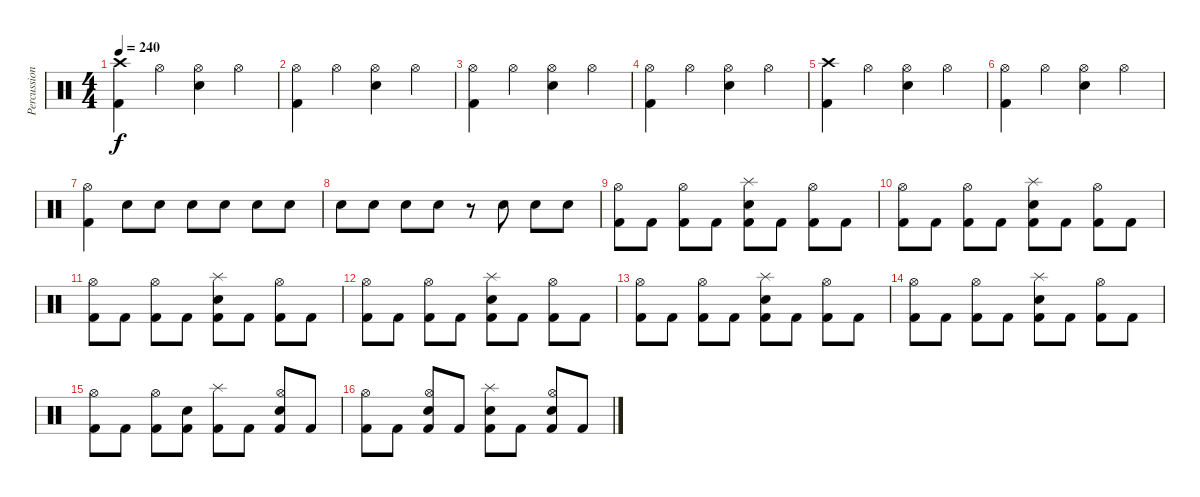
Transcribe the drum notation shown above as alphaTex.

\track ("Percussion" "Percussion") {instrument percussion}
\staff {score}
\articulation defaults
\ts (4 4)
\tempo 240
\clef neutral
\ks c
("Kick (hit) 2" "Crash high (hit)").4{dy f} "Hi-Hat (open)".4 ("Electric Snare (hit)" "Hi-Hat (open)").4 "Hi-Hat (open)".4 |
("Kick (hit) 2" "Hi-Hat (open)").4 "Hi-Hat (open)".4 ("Electric Snare (hit)" "Hi-Hat (open)").4 "Hi-Hat (open)".4 |
("Kick (hit) 2" "Hi-Hat (open)").4 "Hi-Hat (open)".4 ("Electric Snare (hit)" "Hi-Hat (open)").4 "Hi-Hat (open)".4 |
("Kick (hit) 2" "Hi-Hat (open)").4 "Hi-Hat (open)".4 ("Electric Snare (hit)" "Hi-Hat (open)").4 "Hi-Hat (open)".4 |
("Kick (hit) 2" "Crash high (hit)").4 "Hi-Hat (open)".4 ("Electric Snare (hit)" "Hi-Hat (open)").4 "Hi-Hat (open)".4 |
("Kick (hit) 2" "Hi-Hat (open)").4 "Hi-Hat (open)".4 ("Electric Snare (hit)" "Hi-Hat (open)").4 "Hi-Hat (open)".4 |
("Kick (hit) 2" "Hi-Hat (open)").4 "Electric Snare (hit)".8 "Electric Snare (hit)".8 "Electric Snare (hit)".8 "Electric Snare (hit)".8 "Electric Snare (hit)".8 "Electric Snare (hit)".8 |
"Electric Snare (hit)".8 "Electric Snare (hit)".8 "Electric Snare (hit)".8 "Electric Snare (hit)".8 r.8 "Electric Snare (hit)".8 "Electric Snare (hit)".8 "Electric Snare (hit)".8 |
("Kick (hit) 2" "Hi-Hat (open)").8 "Kick (hit) 2".8 ("Kick (hit) 2" "Hi-Hat (open)").8 "Kick (hit) 2".8 ("Kick (hit) 2" "Electric Snare (hit)" "Splash (hit)").8 "Kick (hit) 2".8 ("Kick (hit) 2" "Hi-Hat (open)").8 "Kick (hit) 2".8 |
("Kick (hit) 2" "Hi-Hat (open)").8 "Kick (hit) 2".8 ("Kick (hit) 2" "Hi-Hat (open)").8 "Kick (hit) 2".8 ("Kick (hit) 2" "Electric Snare (hit)" "Splash (hit)").8 "Kick (hit) 2".8 ("Kick (hit) 2" "Hi-Hat (open)").8 "Kick (hit) 2".8 |
("Kick (hit) 2" "Hi-Hat (open)").8 "Kick (hit) 2".8 ("Kick (hit) 2" "Hi-Hat (open)").8 "Kick (hit) 2".8 ("Kick (hit) 2" "Electric Snare (hit)" "Splash (hit)").8 "Kick (hit) 2".8 ("Kick (hit) 2" "Hi-Hat (open)").8 "Kick (hit) 2".8 |
("Kick (hit) 2" "Hi-Hat (open)").8 "Kick (hit) 2".8 ("Kick (hit) 2" "Hi-Hat (open)").8 "Kick (hit) 2".8 ("Kick (hit) 2" "Electric Snare (hit)" "Splash (hit)").8 "Kick (hit) 2".8 ("Kick (hit) 2" "Hi-Hat (open)").8 "Kick (hit) 2".8 |
("Kick (hit) 2" "Hi-Hat (open)").8 "Kick (hit) 2".8 ("Kick (hit) 2" "Hi-Hat (open)").8 "Kick (hit) 2".8 ("Kick (hit) 2" "Electric Snare (hit)" "Splash (hit)").8 "Kick (hit) 2".8 ("Kick (hit) 2" "Hi-Hat (open)").8 "Kick (hit) 2".8 |
("Kick (hit) 2" "Hi-Hat (open)").8 "Kick (hit) 2".8 ("Kick (hit) 2" "Hi-Hat (open)").8 "Kick (hit) 2".8 ("Kick (hit) 2" "Electric Snare (hit)" "Splash (hit)").8 "Kick (hit) 2".8 ("Kick (hit) 2" "Hi-Hat (open)").8 "Kick (hit) 2".8 |
("Kick (hit) 2" "Hi-Hat (open)").8 "Kick (hit) 2".8 ("Kick (hit) 2" "Hi-Hat (open)").8 ("Kick (hit) 2" "Electric Snare (hit)").8 ("Kick (hit) 2" "Splash (hit)").8 "Kick (hit) 2".8 ("Kick (hit) 2" "Electric Snare (hit)" "Hi-Hat (open)").8 "Kick (hit) 2".8 |
("Kick (hit) 2" "Hi-Hat (open)").8 "Kick (hit) 2".8 ("Kick (hit) 2" "Electric Snare (hit)" "Hi-Hat (open)").8 "Kick (hit) 2".8 ("Kick (hit) 2" "Electric Snare (hit)" "Splash (hit)").8 "Kick (hit) 2".8 ("Kick (hit) 2" "Electric Snare (hit)" "Hi-Hat (open)").8 "Kick (hit) 2".8
